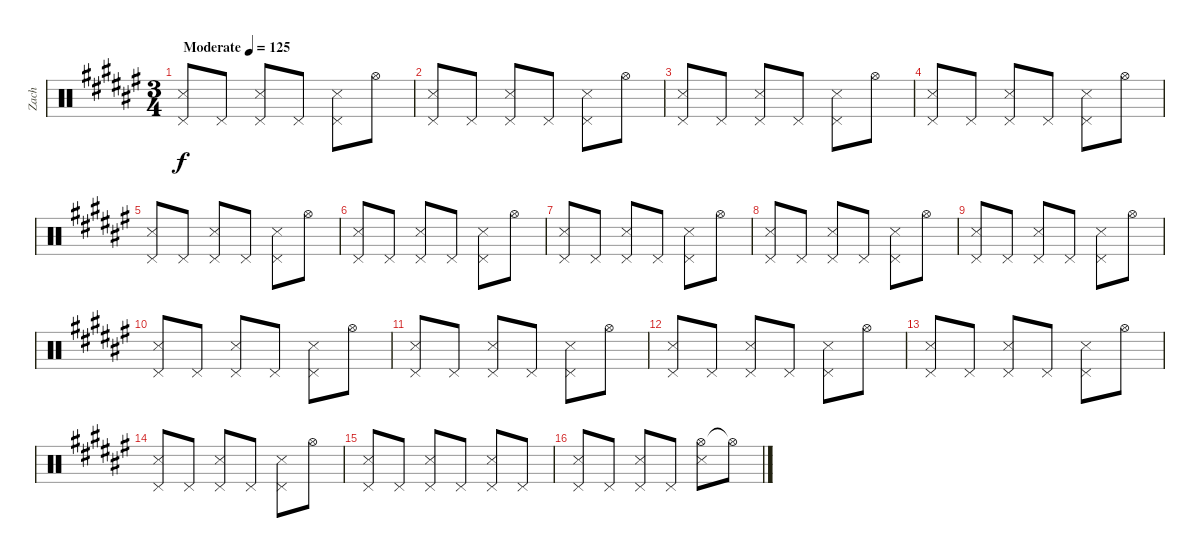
\track ("Zach" "Zach") {instrument percussion}
\staff {score}
\articulation defaults
\ts (3 4)
\tempo (125 "Moderate")
\clef neutral
\ks f#
("Pedal Hi-Hat (hit)" "Snare (side stick) 3").8{dy f} "Pedal Hi-Hat (hit)".8 ("Pedal Hi-Hat (hit)" "Snare (side stick) 3").8 "Pedal Hi-Hat (hit)".8 ("Pedal Hi-Hat (hit)" "Snare (side stick) 3").8 "Hi-Hat (open)".8 |
("Pedal Hi-Hat (hit)" "Snare (side stick) 3").8 "Pedal Hi-Hat (hit)".8 ("Pedal Hi-Hat (hit)" "Snare (side stick) 3").8 "Pedal Hi-Hat (hit)".8 ("Pedal Hi-Hat (hit)" "Snare (side stick) 3").8 "Hi-Hat (open)".8 |
("Pedal Hi-Hat (hit)" "Snare (side stick) 3").8 "Pedal Hi-Hat (hit)".8 ("Pedal Hi-Hat (hit)" "Snare (side stick) 3").8 "Pedal Hi-Hat (hit)".8 ("Pedal Hi-Hat (hit)" "Snare (side stick) 3").8 "Hi-Hat (open)".8 |
("Pedal Hi-Hat (hit)" "Snare (side stick) 3").8 "Pedal Hi-Hat (hit)".8 ("Pedal Hi-Hat (hit)" "Snare (side stick) 3").8 "Pedal Hi-Hat (hit)".8 ("Pedal Hi-Hat (hit)" "Snare (side stick) 3").8 "Hi-Hat (open)".8 |
("Pedal Hi-Hat (hit)" "Snare (side stick) 3").8 "Pedal Hi-Hat (hit)".8 ("Pedal Hi-Hat (hit)" "Snare (side stick) 3").8 "Pedal Hi-Hat (hit)".8 ("Pedal Hi-Hat (hit)" "Snare (side stick) 3").8 "Hi-Hat (open)".8 |
("Pedal Hi-Hat (hit)" "Snare (side stick) 3").8 "Pedal Hi-Hat (hit)".8 ("Pedal Hi-Hat (hit)" "Snare (side stick) 3").8 "Pedal Hi-Hat (hit)".8 ("Pedal Hi-Hat (hit)" "Snare (side stick) 3").8 "Hi-Hat (open)".8 |
("Pedal Hi-Hat (hit)" "Snare (side stick) 3").8 "Pedal Hi-Hat (hit)".8 ("Pedal Hi-Hat (hit)" "Snare (side stick) 3").8 "Pedal Hi-Hat (hit)".8 ("Pedal Hi-Hat (hit)" "Snare (side stick) 3").8 "Hi-Hat (open)".8 |
("Pedal Hi-Hat (hit)" "Snare (side stick) 3").8 "Pedal Hi-Hat (hit)".8 ("Pedal Hi-Hat (hit)" "Snare (side stick) 3").8 "Pedal Hi-Hat (hit)".8 ("Pedal Hi-Hat (hit)" "Snare (side stick) 3").8 "Hi-Hat (open)".8 |
("Pedal Hi-Hat (hit)" "Snare (side stick) 3").8 "Pedal Hi-Hat (hit)".8 ("Pedal Hi-Hat (hit)" "Snare (side stick) 3").8 "Pedal Hi-Hat (hit)".8 ("Pedal Hi-Hat (hit)" "Snare (side stick) 3").8 "Hi-Hat (open)".8 |
("Pedal Hi-Hat (hit)" "Snare (side stick) 3").8 "Pedal Hi-Hat (hit)".8 ("Pedal Hi-Hat (hit)" "Snare (side stick) 3").8 "Pedal Hi-Hat (hit)".8 ("Pedal Hi-Hat (hit)" "Snare (side stick) 3").8 "Hi-Hat (open)".8 |
("Pedal Hi-Hat (hit)" "Snare (side stick) 3").8 "Pedal Hi-Hat (hit)".8 ("Pedal Hi-Hat (hit)" "Snare (side stick) 3").8 "Pedal Hi-Hat (hit)".8 ("Pedal Hi-Hat (hit)" "Snare (side stick) 3").8 "Hi-Hat (open)".8 |
("Pedal Hi-Hat (hit)" "Snare (side stick) 3").8 "Pedal Hi-Hat (hit)".8 ("Pedal Hi-Hat (hit)" "Snare (side stick) 3").8 "Pedal Hi-Hat (hit)".8 ("Pedal Hi-Hat (hit)" "Snare (side stick) 3").8 "Hi-Hat (open)".8 |
("Pedal Hi-Hat (hit)" "Snare (side stick) 3").8 "Pedal Hi-Hat (hit)".8 ("Pedal Hi-Hat (hit)" "Snare (side stick) 3").8 "Pedal Hi-Hat (hit)".8 ("Pedal Hi-Hat (hit)" "Snare (side stick) 3").8 "Hi-Hat (open)".8 |
("Pedal Hi-Hat (hit)" "Snare (side stick) 3").8 "Pedal Hi-Hat (hit)".8 ("Pedal Hi-Hat (hit)" "Snare (side stick) 3").8 "Pedal Hi-Hat (hit)".8 ("Pedal Hi-Hat (hit)" "Snare (side stick) 3").8 "Hi-Hat (open)".8 |
("Pedal Hi-Hat (hit)" "Snare (side stick) 3").8 "Pedal Hi-Hat (hit)".8 ("Pedal Hi-Hat (hit)" "Snare (side stick) 3").8 "Pedal Hi-Hat (hit)".8 ("Pedal Hi-Hat (hit)" "Snare (side stick) 3").8 "Pedal Hi-Hat (hit)".8 |
("Pedal Hi-Hat (hit)" "Snare (side stick) 3").8 "Pedal Hi-Hat (hit)".8 ("Pedal Hi-Hat (hit)" "Snare (side stick) 3").8 "Pedal Hi-Hat (hit)".8 ("Hi-Hat (open)" "Snare (side stick) 3").8 "Hi-Hat (open)"{t}.8
